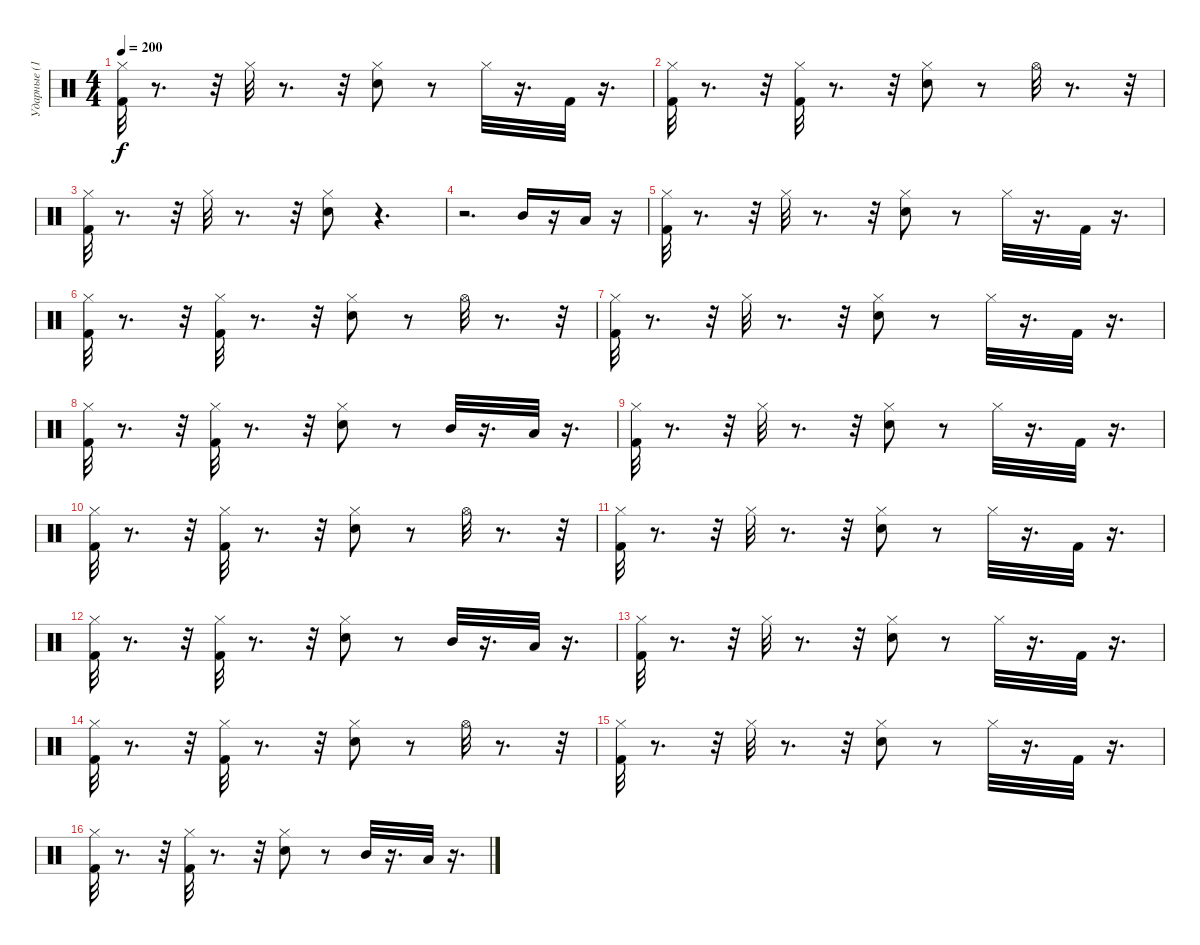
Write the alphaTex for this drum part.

\track ("Ударные (1)" "Ударные (1") {instrument percussion}
\staff {score}
\articulation defaults
\ts (4 4)
\tempo 200
\clef neutral
\ks c
("Hi-Hat (closed)" "Kick (hit) 2").32{dy f} r.8{d} r.32 "Hi-Hat (closed)".32 r.8{d} r.32 ("Hi-Hat (closed)" "Hand Clap (hit)").8 r.8 "Hi-Hat (closed)".32 r.16{d} "Kick (hit) 2".32 r.16{d} |
("Hi-Hat (closed)" "Kick (hit) 2").32 r.8{d} r.32 ("Hi-Hat (closed)" "Kick (hit) 2").32 r.8{d} r.32 ("Hi-Hat (closed)" "Hand Clap (hit)").8 r.8 "Hi-Hat (open)".32 r.8{d} r.32 |
("Hi-Hat (closed)" "Kick (hit) 2").32 r.8{d} r.32 "Hi-Hat (closed)".32 r.8{d} r.32 ("Hi-Hat (closed)" "Hand Clap (hit)").8 r.4{d} |
r.2{d} "Mid Tom (hit)".16 r.16 "Low Tom (hit)".16 r.16 |
("Hi-Hat (closed)" "Kick (hit) 2").32 r.8{d} r.32 "Hi-Hat (closed)".32 r.8{d} r.32 ("Hi-Hat (closed)" "Hand Clap (hit)").8 r.8 "Hi-Hat (closed)".32 r.16{d} "Kick (hit) 2".32 r.16{d} |
("Hi-Hat (closed)" "Kick (hit) 2").32 r.8{d} r.32 ("Hi-Hat (closed)" "Kick (hit) 2").32 r.8{d} r.32 ("Hi-Hat (closed)" "Hand Clap (hit)").8 r.8 "Hi-Hat (open)".32 r.8{d} r.32 |
("Hi-Hat (closed)" "Kick (hit) 2").32 r.8{d} r.32 "Hi-Hat (closed)".32 r.8{d} r.32 ("Hi-Hat (closed)" "Hand Clap (hit)").8 r.8 "Hi-Hat (closed)".32 r.16{d} "Kick (hit) 2".32 r.16{d} |
("Hi-Hat (closed)" "Kick (hit) 2").32 r.8{d} r.32 ("Hi-Hat (closed)" "Kick (hit) 2").32 r.8{d} r.32 ("Hi-Hat (closed)" "Hand Clap (hit)").8 r.8 "Mid Tom (hit)".32 r.16{d} "Low Tom (hit)".32 r.16{d} |
("Hi-Hat (closed)" "Kick (hit) 2").32 r.8{d} r.32 "Hi-Hat (closed)".32 r.8{d} r.32 ("Hi-Hat (closed)" "Hand Clap (hit)").8 r.8 "Hi-Hat (closed)".32 r.16{d} "Kick (hit) 2".32 r.16{d} |
("Hi-Hat (closed)" "Kick (hit) 2").32 r.8{d} r.32 ("Hi-Hat (closed)" "Kick (hit) 2").32 r.8{d} r.32 ("Hi-Hat (closed)" "Hand Clap (hit)").8 r.8 "Hi-Hat (open)".32 r.8{d} r.32 |
("Hi-Hat (closed)" "Kick (hit) 2").32 r.8{d} r.32 "Hi-Hat (closed)".32 r.8{d} r.32 ("Hi-Hat (closed)" "Hand Clap (hit)").8 r.8 "Hi-Hat (closed)".32 r.16{d} "Kick (hit) 2".32 r.16{d} |
("Hi-Hat (closed)" "Kick (hit) 2").32 r.8{d} r.32 ("Hi-Hat (closed)" "Kick (hit) 2").32 r.8{d} r.32 ("Hi-Hat (closed)" "Hand Clap (hit)").8 r.8 "Mid Tom (hit)".32 r.16{d} "Low Tom (hit)".32 r.16{d} |
("Hi-Hat (closed)" "Kick (hit) 2").32 r.8{d} r.32 "Hi-Hat (closed)".32 r.8{d} r.32 ("Hi-Hat (closed)" "Hand Clap (hit)").8 r.8 "Hi-Hat (closed)".32 r.16{d} "Kick (hit) 2".32 r.16{d} |
("Hi-Hat (closed)" "Kick (hit) 2").32 r.8{d} r.32 ("Hi-Hat (closed)" "Kick (hit) 2").32 r.8{d} r.32 ("Hi-Hat (closed)" "Hand Clap (hit)").8 r.8 "Hi-Hat (open)".32 r.8{d} r.32 |
("Hi-Hat (closed)" "Kick (hit) 2").32 r.8{d} r.32 "Hi-Hat (closed)".32 r.8{d} r.32 ("Hi-Hat (closed)" "Hand Clap (hit)").8 r.8 "Hi-Hat (closed)".32 r.16{d} "Kick (hit) 2".32 r.16{d} |
("Hi-Hat (closed)" "Kick (hit) 2").32 r.8{d} r.32 ("Hi-Hat (closed)" "Kick (hit) 2").32 r.8{d} r.32 ("Hi-Hat (closed)" "Hand Clap (hit)").8 r.8 "Mid Tom (hit)".32 r.16{d} "Low Tom (hit)".32 r.16{d}
